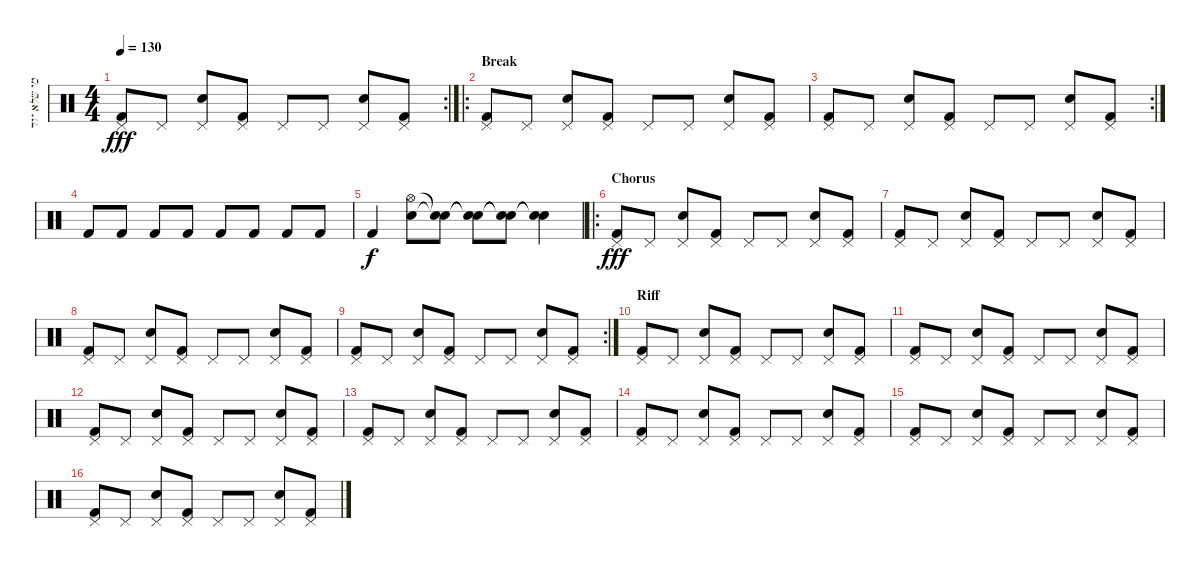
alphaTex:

\track ("מי שלא יודע עברית סתם הומו" "מי שלא יוד") {instrument percussion}
\staff {score}
\articulation defaults
\rc 2
\ts (4 4)
\tempo 130
\clef neutral
\ks c
("Pedal Hi-Hat (hit)" "Kick (hit) 2").8{dy fff} "Pedal Hi-Hat (hit)".8 ("Pedal Hi-Hat (hit)" "Snare (hit) 2").8 ("Pedal Hi-Hat (hit)" "Kick (hit) 2").8 "Pedal Hi-Hat (hit)".8 "Pedal Hi-Hat (hit)".8 ("Pedal Hi-Hat (hit)" "Snare (hit) 2").8 ("Pedal Hi-Hat (hit)" "Kick (hit) 2").8 |
\ro
\section ("" "Break")
("Pedal Hi-Hat (hit)" "Kick (hit) 2").8 "Pedal Hi-Hat (hit)".8 ("Pedal Hi-Hat (hit)" "Snare (hit) 2").8 ("Pedal Hi-Hat (hit)" "Kick (hit) 2").8 "Pedal Hi-Hat (hit)".8 "Pedal Hi-Hat (hit)".8 ("Pedal Hi-Hat (hit)" "Snare (hit) 2").8 ("Pedal Hi-Hat (hit)" "Kick (hit) 2").8 |
\rc 2
("Pedal Hi-Hat (hit)" "Kick (hit) 2").8 "Pedal Hi-Hat (hit)".8 ("Pedal Hi-Hat (hit)" "Snare (hit) 2").8 ("Pedal Hi-Hat (hit)" "Kick (hit) 2").8 "Pedal Hi-Hat (hit)".8 "Pedal Hi-Hat (hit)".8 ("Pedal Hi-Hat (hit)" "Snare (hit) 2").8 ("Pedal Hi-Hat (hit)" "Kick (hit) 2").8 |
"Kick (hit) 2".8 "Kick (hit) 2".8 "Kick (hit) 2".8 "Kick (hit) 2".8 "Kick (hit) 2".8 "Kick (hit) 2".8 "Kick (hit) 2".8 "Kick (hit) 2".8 |
"Kick (hit) 2".4{dy f} ("Hi-Hat (open)" "Electric Snare (hit)").8 ("Snare (hit)"{t} "Snare (hit)"{t}).8 ("Snare (hit)"{t} "Snare (hit)"{t}).8 ("Snare (hit)"{t} "Snare (hit)"{t}).8 ("Snare (hit)"{t} "Snare (hit)"{t}).4 |
\ro
\section ("" "Chorus")
("Pedal Hi-Hat (hit)" "Kick (hit) 2").8{dy fff} "Pedal Hi-Hat (hit)".8 ("Pedal Hi-Hat (hit)" "Snare (hit) 2").8 ("Pedal Hi-Hat (hit)" "Kick (hit) 2").8 "Pedal Hi-Hat (hit)".8 "Pedal Hi-Hat (hit)".8 ("Pedal Hi-Hat (hit)" "Snare (hit) 2").8 ("Pedal Hi-Hat (hit)" "Kick (hit) 2").8 |
("Pedal Hi-Hat (hit)" "Kick (hit) 2").8 "Pedal Hi-Hat (hit)".8 ("Pedal Hi-Hat (hit)" "Snare (hit) 2").8 ("Pedal Hi-Hat (hit)" "Kick (hit) 2").8 "Pedal Hi-Hat (hit)".8 "Pedal Hi-Hat (hit)".8 ("Pedal Hi-Hat (hit)" "Snare (hit) 2").8 ("Pedal Hi-Hat (hit)" "Kick (hit) 2").8 |
("Pedal Hi-Hat (hit)" "Kick (hit) 2").8 "Pedal Hi-Hat (hit)".8 ("Pedal Hi-Hat (hit)" "Snare (hit) 2").8 ("Pedal Hi-Hat (hit)" "Kick (hit) 2").8 "Pedal Hi-Hat (hit)".8 "Pedal Hi-Hat (hit)".8 ("Pedal Hi-Hat (hit)" "Snare (hit) 2").8 ("Pedal Hi-Hat (hit)" "Kick (hit) 2").8 |
\rc 2
("Pedal Hi-Hat (hit)" "Kick (hit) 2").8 "Pedal Hi-Hat (hit)".8 ("Pedal Hi-Hat (hit)" "Snare (hit) 2").8 ("Pedal Hi-Hat (hit)" "Kick (hit) 2").8 "Pedal Hi-Hat (hit)".8 "Pedal Hi-Hat (hit)".8 ("Pedal Hi-Hat (hit)" "Snare (hit) 2").8 ("Pedal Hi-Hat (hit)" "Kick (hit) 2").8 |
\section ("" "Riff")
("Pedal Hi-Hat (hit)" "Kick (hit) 2").8 "Pedal Hi-Hat (hit)".8 ("Pedal Hi-Hat (hit)" "Snare (hit) 2").8 ("Pedal Hi-Hat (hit)" "Kick (hit) 2").8 "Pedal Hi-Hat (hit)".8 "Pedal Hi-Hat (hit)".8 ("Pedal Hi-Hat (hit)" "Snare (hit) 2").8 ("Pedal Hi-Hat (hit)" "Kick (hit) 2").8 |
("Pedal Hi-Hat (hit)" "Kick (hit) 2").8 "Pedal Hi-Hat (hit)".8 ("Pedal Hi-Hat (hit)" "Snare (hit) 2").8 ("Pedal Hi-Hat (hit)" "Kick (hit) 2").8 "Pedal Hi-Hat (hit)".8 "Pedal Hi-Hat (hit)".8 ("Pedal Hi-Hat (hit)" "Snare (hit) 2").8 ("Pedal Hi-Hat (hit)" "Kick (hit) 2").8 |
("Pedal Hi-Hat (hit)" "Kick (hit) 2").8 "Pedal Hi-Hat (hit)".8 ("Pedal Hi-Hat (hit)" "Snare (hit) 2").8 ("Pedal Hi-Hat (hit)" "Kick (hit) 2").8 "Pedal Hi-Hat (hit)".8 "Pedal Hi-Hat (hit)".8 ("Pedal Hi-Hat (hit)" "Snare (hit) 2").8 ("Pedal Hi-Hat (hit)" "Kick (hit) 2").8 |
("Pedal Hi-Hat (hit)" "Kick (hit) 2").8 "Pedal Hi-Hat (hit)".8 ("Pedal Hi-Hat (hit)" "Snare (hit) 2").8 ("Pedal Hi-Hat (hit)" "Kick (hit) 2").8 "Pedal Hi-Hat (hit)".8 "Pedal Hi-Hat (hit)".8 ("Pedal Hi-Hat (hit)" "Snare (hit) 2").8 ("Pedal Hi-Hat (hit)" "Kick (hit) 2").8 |
("Pedal Hi-Hat (hit)" "Kick (hit) 2").8 "Pedal Hi-Hat (hit)".8 ("Pedal Hi-Hat (hit)" "Snare (hit) 2").8 ("Pedal Hi-Hat (hit)" "Kick (hit) 2").8 "Pedal Hi-Hat (hit)".8 "Pedal Hi-Hat (hit)".8 ("Pedal Hi-Hat (hit)" "Snare (hit) 2").8 ("Pedal Hi-Hat (hit)" "Kick (hit) 2").8 |
("Pedal Hi-Hat (hit)" "Kick (hit) 2").8 "Pedal Hi-Hat (hit)".8 ("Pedal Hi-Hat (hit)" "Snare (hit) 2").8 ("Pedal Hi-Hat (hit)" "Kick (hit) 2").8 "Pedal Hi-Hat (hit)".8 "Pedal Hi-Hat (hit)".8 ("Pedal Hi-Hat (hit)" "Snare (hit) 2").8 ("Pedal Hi-Hat (hit)" "Kick (hit) 2").8 |
("Pedal Hi-Hat (hit)" "Kick (hit) 2").8 "Pedal Hi-Hat (hit)".8 ("Pedal Hi-Hat (hit)" "Snare (hit) 2").8 ("Pedal Hi-Hat (hit)" "Kick (hit) 2").8 "Pedal Hi-Hat (hit)".8 "Pedal Hi-Hat (hit)".8 ("Pedal Hi-Hat (hit)" "Snare (hit) 2").8 ("Pedal Hi-Hat (hit)" "Kick (hit) 2").8
